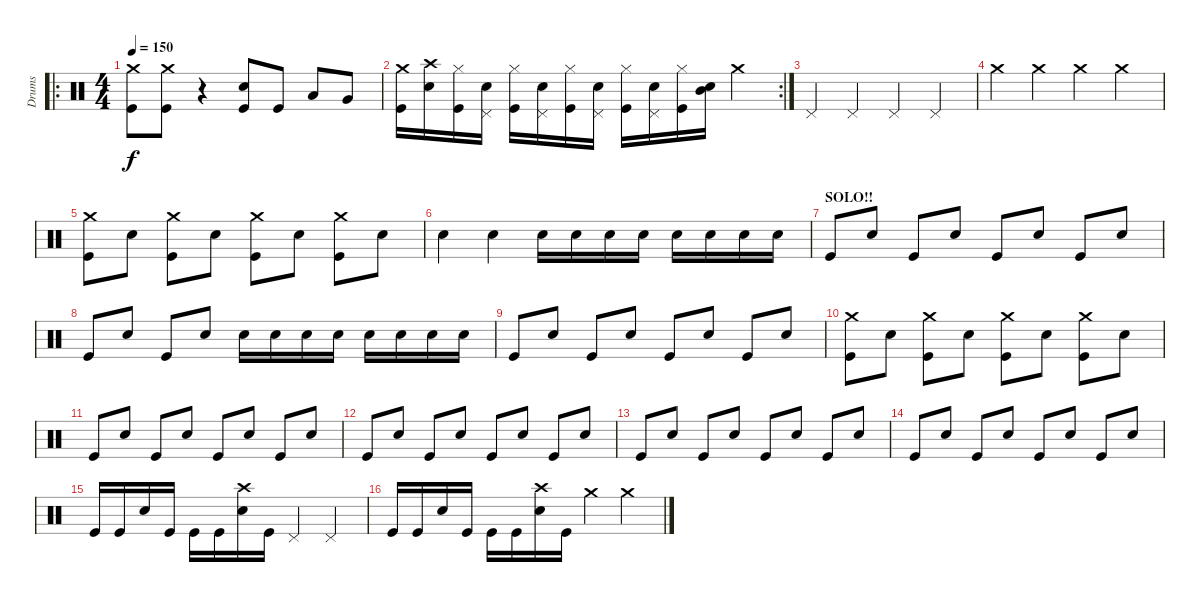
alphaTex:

\track ("Drums" "Drums") {instrument percussion}
\staff {score}
\articulation defaults
\ro
\ts (4 4)
\tempo 150
\clef neutral
\ks c
("Crash medium (hit)" "Kick (hit)").8{dy f} ("Crash medium (hit)" "Kick (hit)").8 r.4 ("Snare (hit) 2" "Kick (hit)").8 "Kick (hit)".8 "Low Floor Tom (hit)".8 "Very Low Tom (hit)".8 |
\rc 2
("Crash medium (hit)" "Kick (hit)").16 ("Crash high (hit)" "Snare (hit) 2").16 ("Hi-Hat (closed)" "Kick (hit)").16 ("Pedal Hi-Hat (hit)" "Snare (hit) 2").16 ("Hi-Hat (closed)" "Kick (hit)").16 ("Pedal Hi-Hat (hit)" "Snare (hit) 2").16 ("Hi-Hat (closed)" "Kick (hit)").16 ("Pedal Hi-Hat (hit)" "Snare (hit) 2").16 ("Hi-Hat (closed)" "Kick (hit)").16 ("Pedal Hi-Hat (hit)" "Snare (hit) 2").16 ("Hi-Hat (closed)" "Kick (hit)").16 ("Mid Tom (hit)" "Snare (hit) 2").16 "Crash medium (hit)".4 |
"Pedal Hi-Hat (hit)".4 "Pedal Hi-Hat (hit)".4 "Pedal Hi-Hat (hit)".4 "Pedal Hi-Hat (hit)".4 |
"Crash medium (hit)".4 "Crash medium (hit)".4 "Crash medium (hit)".4 "Crash medium (hit)".4 |
("Crash medium (hit)" "Kick (hit)").8 "Snare (hit) 2".8 ("Crash medium (hit)" "Kick (hit)").8 "Snare (hit) 2".8 ("Crash medium (hit)" "Kick (hit)").8 "Snare (hit) 2".8 ("Crash medium (hit)" "Kick (hit)").8 "Snare (hit) 2".8 |
"Snare (hit) 2".4 "Snare (hit) 2".4 "Snare (hit) 2".16 "Snare (hit) 2".16 "Snare (hit) 2".16 "Snare (hit) 2".16 "Snare (hit) 2".16 "Snare (hit) 2".16 "Snare (hit) 2".16 "Snare (hit) 2".16 |
\section ("" "SOLO!!")
"Kick (hit)".8 "Snare (hit) 2".8 "Kick (hit)".8 "Snare (hit) 2".8 "Kick (hit)".8 "Snare (hit) 2".8 "Kick (hit)".8 "Snare (hit) 2".8 |
"Kick (hit)".8 "Snare (hit) 2".8 "Kick (hit)".8 "Snare (hit) 2".8 "Snare (hit) 2".16 "Snare (hit) 2".16 "Snare (hit) 2".16 "Snare (hit) 2".16 "Snare (hit) 2".16 "Snare (hit) 2".16 "Snare (hit) 2".16 "Snare (hit) 2".16 |
"Kick (hit)".8 "Snare (hit) 2".8 "Kick (hit)".8 "Snare (hit) 2".8 "Kick (hit)".8 "Snare (hit) 2".8 "Kick (hit)".8 "Snare (hit) 2".8 |
("Crash medium (hit)" "Kick (hit)").8 "Snare (hit) 2".8 ("Crash medium (hit)" "Kick (hit)").8 "Snare (hit) 2".8 ("Crash medium (hit)" "Kick (hit)").8 "Snare (hit) 2".8 ("Crash medium (hit)" "Kick (hit)").8 "Snare (hit) 2".8 |
"Kick (hit)".8 "Snare (hit) 2".8 "Kick (hit)".8 "Snare (hit) 2".8 "Kick (hit)".8 "Snare (hit) 2".8 "Kick (hit)".8 "Snare (hit) 2".8 |
"Kick (hit)".8 "Snare (hit) 2".8 "Kick (hit)".8 "Snare (hit) 2".8 "Kick (hit)".8 "Snare (hit) 2".8 "Kick (hit)".8 "Snare (hit) 2".8 |
"Kick (hit)".8 "Snare (hit) 2".8 "Kick (hit)".8 "Snare (hit) 2".8 "Kick (hit)".8 "Snare (hit) 2".8 "Kick (hit)".8 "Snare (hit) 2".8 |
"Kick (hit)".8 "Snare (hit) 2".8 "Kick (hit)".8 "Snare (hit) 2".8 "Kick (hit)".8 "Snare (hit) 2".8 "Kick (hit)".8 "Snare (hit) 2".8 |
"Kick (hit)".16 "Kick (hit)".16 "Snare (hit) 2".16 "Kick (hit)".16 "Kick (hit)".16 "Kick (hit)".16 ("Crash high (hit)" "Snare (hit) 2").16 "Kick (hit)".16 "Pedal Hi-Hat (hit)".4 "Pedal Hi-Hat (hit)".4 |
"Kick (hit)".16 "Kick (hit)".16 "Snare (hit) 2".16 "Kick (hit)".16 "Kick (hit)".16 "Kick (hit)".16 ("Crash high (hit)" "Snare (hit) 2").16 "Kick (hit)".16 "Crash medium (hit)".4 "Crash medium (hit)".4
